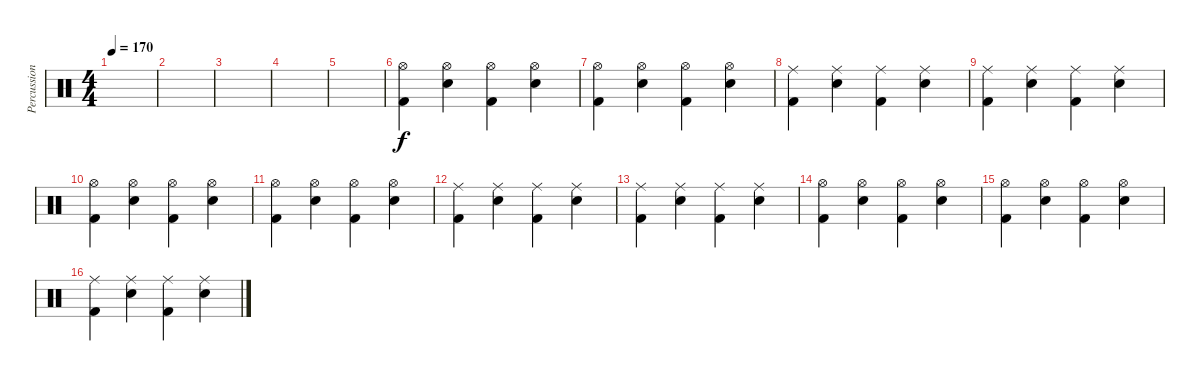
\track ("Percussion" "Percussion") {instrument percussion}
\staff {score}
\articulation defaults
\ts (4 4)
\tempo 170
\clef neutral
\ks c
|
|
|
|
|
("Hi-Hat (open)" "Kick (hit) 2").4 ("Hi-Hat (open)" "Electric Snare (hit)").4 ("Hi-Hat (open)" "Kick (hit) 2").4 ("Hi-Hat (open)" "Electric Snare (hit)").4 |
("Hi-Hat (open)" "Kick (hit) 2").4 ("Hi-Hat (open)" "Electric Snare (hit)").4 ("Hi-Hat (open)" "Kick (hit) 2").4 ("Hi-Hat (open)" "Electric Snare (hit)").4 |
("Ride (middle)" "Kick (hit) 2").4 ("Ride (middle)" "Electric Snare (hit)").4 ("Ride (middle)" "Kick (hit) 2").4 ("Ride (middle)" "Electric Snare (hit)").4 |
("Ride (middle)" "Kick (hit) 2").4 ("Ride (middle)" "Electric Snare (hit)").4 ("Ride (middle)" "Kick (hit) 2").4 ("Ride (middle)" "Electric Snare (hit)").4 |
("Hi-Hat (open)" "Kick (hit) 2").4 ("Hi-Hat (open)" "Electric Snare (hit)").4 ("Hi-Hat (open)" "Kick (hit) 2").4 ("Hi-Hat (open)" "Electric Snare (hit)").4 |
("Hi-Hat (open)" "Kick (hit) 2").4 ("Hi-Hat (open)" "Electric Snare (hit)").4 ("Hi-Hat (open)" "Kick (hit) 2").4 ("Hi-Hat (open)" "Electric Snare (hit)").4 |
("Ride (middle)" "Kick (hit) 2").4 ("Ride (middle)" "Electric Snare (hit)").4 ("Ride (middle)" "Kick (hit) 2").4 ("Ride (middle)" "Electric Snare (hit)").4 |
("Ride (middle)" "Kick (hit) 2").4 ("Ride (middle)" "Electric Snare (hit)").4 ("Ride (middle)" "Kick (hit) 2").4 ("Ride (middle)" "Electric Snare (hit)").4 |
("Hi-Hat (open)" "Kick (hit) 2").4 ("Hi-Hat (open)" "Electric Snare (hit)").4 ("Hi-Hat (open)" "Kick (hit) 2").4 ("Hi-Hat (open)" "Electric Snare (hit)").4 |
("Hi-Hat (open)" "Kick (hit) 2").4 ("Hi-Hat (open)" "Electric Snare (hit)").4 ("Hi-Hat (open)" "Kick (hit) 2").4 ("Hi-Hat (open)" "Electric Snare (hit)").4 |
("Ride (middle)" "Kick (hit) 2").4 ("Ride (middle)" "Electric Snare (hit)").4 ("Ride (middle)" "Kick (hit) 2").4 ("Ride (middle)" "Electric Snare (hit)").4
